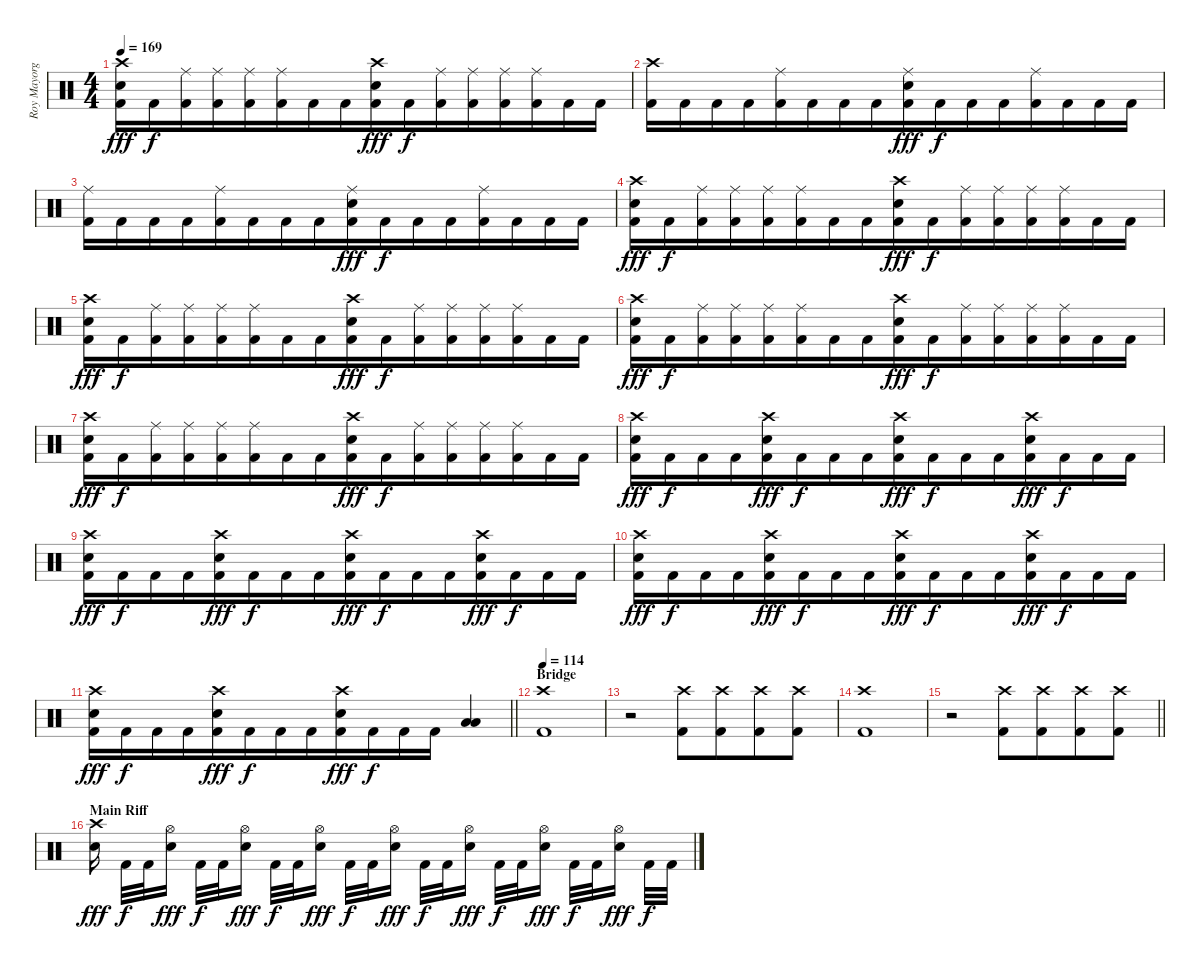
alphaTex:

\track ("Roy Mayorga" "Roy Mayorg") {instrument percussion}
\staff {score}
\articulation defaults
\ts (4 4)
\tempo 169
\clef neutral
\ks c
("Crash high (hit)" "Electric Snare (hit)" "Kick (hit) 2").16{dy fff} "Kick (hit) 2".16{dy f} ("Ride (middle)" "Kick (hit) 2").16 ("Ride (middle)" "Kick (hit) 2").16{beam merge} ("Ride (middle)" "Kick (hit) 2").16 ("Ride (middle)" "Kick (hit) 2").16 "Kick (hit) 2".16 "Kick (hit) 2".16{beam merge} ("Crash high (hit)" "Electric Snare (hit)" "Kick (hit) 2").16{dy fff} "Kick (hit) 2".16{dy f} ("Ride (middle)" "Kick (hit) 2").16 ("Ride (middle)" "Kick (hit) 2").16{beam merge} ("Ride (middle)" "Kick (hit) 2").16 ("Ride (middle)" "Kick (hit) 2").16 "Kick (hit) 2".16 "Kick (hit) 2".16 |
("Crash high (hit)" "Kick (hit) 2").16 "Kick (hit) 2".16 "Kick (hit) 2".16 "Kick (hit) 2".16{beam merge} ("Ride (middle)" "Kick (hit) 2").16 "Kick (hit) 2".16 "Kick (hit) 2".16 "Kick (hit) 2".16{beam merge} ("Ride (middle)" "Electric Snare (hit)" "Kick (hit) 2").16{dy fff} "Kick (hit) 2".16{dy f} "Kick (hit) 2".16 "Kick (hit) 2".16{beam merge} ("Ride (middle)" "Kick (hit) 2").16 "Kick (hit) 2".16 "Kick (hit) 2".16 "Kick (hit) 2".16 |
("Ride (middle)" "Kick (hit) 2").16 "Kick (hit) 2".16 "Kick (hit) 2".16 "Kick (hit) 2".16{beam merge} ("Ride (middle)" "Kick (hit) 2").16 "Kick (hit) 2".16 "Kick (hit) 2".16 "Kick (hit) 2".16{beam merge} ("Ride (middle)" "Electric Snare (hit)" "Kick (hit) 2").16{dy fff} "Kick (hit) 2".16{dy f} "Kick (hit) 2".16 "Kick (hit) 2".16{beam merge} ("Ride (middle)" "Kick (hit) 2").16 "Kick (hit) 2".16 "Kick (hit) 2".16 "Kick (hit) 2".16 |
("Crash high (hit)" "Electric Snare (hit)" "Kick (hit) 2").16{dy fff} "Kick (hit) 2".16{dy f} ("Ride (middle)" "Kick (hit) 2").16 ("Ride (middle)" "Kick (hit) 2").16{beam merge} ("Ride (middle)" "Kick (hit) 2").16 ("Ride (middle)" "Kick (hit) 2").16 "Kick (hit) 2".16 "Kick (hit) 2".16{beam merge} ("Crash high (hit)" "Electric Snare (hit)" "Kick (hit) 2").16{dy fff} "Kick (hit) 2".16{dy f} ("Ride (middle)" "Kick (hit) 2").16 ("Ride (middle)" "Kick (hit) 2").16{beam merge} ("Ride (middle)" "Kick (hit) 2").16 ("Ride (middle)" "Kick (hit) 2").16 "Kick (hit) 2".16 "Kick (hit) 2".16 |
("Crash high (hit)" "Electric Snare (hit)" "Kick (hit) 2").16{dy fff} "Kick (hit) 2".16{dy f} ("Ride (middle)" "Kick (hit) 2").16 ("Ride (middle)" "Kick (hit) 2").16{beam merge} ("Ride (middle)" "Kick (hit) 2").16 ("Ride (middle)" "Kick (hit) 2").16 "Kick (hit) 2".16 "Kick (hit) 2".16{beam merge} ("Crash high (hit)" "Electric Snare (hit)" "Kick (hit) 2").16{dy fff} "Kick (hit) 2".16{dy f} ("Ride (middle)" "Kick (hit) 2").16 ("Ride (middle)" "Kick (hit) 2").16{beam merge} ("Ride (middle)" "Kick (hit) 2").16 ("Ride (middle)" "Kick (hit) 2").16 "Kick (hit) 2".16 "Kick (hit) 2".16 |
("Crash high (hit)" "Electric Snare (hit)" "Kick (hit) 2").16{dy fff} "Kick (hit) 2".16{dy f} ("Ride (middle)" "Kick (hit) 2").16 ("Ride (middle)" "Kick (hit) 2").16{beam merge} ("Ride (middle)" "Kick (hit) 2").16 ("Ride (middle)" "Kick (hit) 2").16 "Kick (hit) 2".16 "Kick (hit) 2".16{beam merge} ("Crash high (hit)" "Electric Snare (hit)" "Kick (hit) 2").16{dy fff} "Kick (hit) 2".16{dy f} ("Ride (middle)" "Kick (hit) 2").16 ("Ride (middle)" "Kick (hit) 2").16{beam merge} ("Ride (middle)" "Kick (hit) 2").16 ("Ride (middle)" "Kick (hit) 2").16 "Kick (hit) 2".16 "Kick (hit) 2".16 |
("Crash high (hit)" "Electric Snare (hit)" "Kick (hit) 2").16{dy fff} "Kick (hit) 2".16{dy f} ("Ride (middle)" "Kick (hit) 2").16 ("Ride (middle)" "Kick (hit) 2").16{beam merge} ("Ride (middle)" "Kick (hit) 2").16 ("Ride (middle)" "Kick (hit) 2").16 "Kick (hit) 2".16 "Kick (hit) 2".16{beam merge} ("Crash high (hit)" "Electric Snare (hit)" "Kick (hit) 2").16{dy fff} "Kick (hit) 2".16{dy f} ("Ride (middle)" "Kick (hit) 2").16 ("Ride (middle)" "Kick (hit) 2").16{beam merge} ("Ride (middle)" "Kick (hit) 2").16 ("Ride (middle)" "Kick (hit) 2").16 "Kick (hit) 2".16 "Kick (hit) 2".16 |
("Crash high (hit)" "Electric Snare (hit)" "Kick (hit) 2").16{dy fff} "Kick (hit) 2".16{dy f} "Kick (hit) 2".16 "Kick (hit) 2".16{beam merge} ("Crash high (hit)" "Electric Snare (hit)" "Kick (hit) 2").16{dy fff} "Kick (hit) 2".16{dy f} "Kick (hit) 2".16 "Kick (hit) 2".16{beam merge} ("Crash high (hit)" "Electric Snare (hit)" "Kick (hit) 2").16{dy fff} "Kick (hit) 2".16{dy f} "Kick (hit) 2".16 "Kick (hit) 2".16{beam merge} ("Crash high (hit)" "Electric Snare (hit)" "Kick (hit) 2").16{dy fff} "Kick (hit) 2".16{dy f} "Kick (hit) 2".16 "Kick (hit) 2".16 |
("Crash high (hit)" "Electric Snare (hit)" "Kick (hit) 2").16{dy fff} "Kick (hit) 2".16{dy f} "Kick (hit) 2".16 "Kick (hit) 2".16{beam merge} ("Crash high (hit)" "Electric Snare (hit)" "Kick (hit) 2").16{dy fff} "Kick (hit) 2".16{dy f} "Kick (hit) 2".16 "Kick (hit) 2".16{beam merge} ("Crash high (hit)" "Electric Snare (hit)" "Kick (hit) 2").16{dy fff} "Kick (hit) 2".16{dy f} "Kick (hit) 2".16 "Kick (hit) 2".16{beam merge} ("Crash high (hit)" "Electric Snare (hit)" "Kick (hit) 2").16{dy fff} "Kick (hit) 2".16{dy f} "Kick (hit) 2".16 "Kick (hit) 2".16 |
("Crash high (hit)" "Electric Snare (hit)" "Kick (hit) 2").16{dy fff} "Kick (hit) 2".16{dy f} "Kick (hit) 2".16 "Kick (hit) 2".16{beam merge} ("Crash high (hit)" "Electric Snare (hit)" "Kick (hit) 2").16{dy fff} "Kick (hit) 2".16{dy f} "Kick (hit) 2".16 "Kick (hit) 2".16{beam merge} ("Crash high (hit)" "Electric Snare (hit)" "Kick (hit) 2").16{dy fff} "Kick (hit) 2".16{dy f} "Kick (hit) 2".16 "Kick (hit) 2".16{beam merge} ("Crash high (hit)" "Electric Snare (hit)" "Kick (hit) 2").16{dy fff} "Kick (hit) 2".16{dy f} "Kick (hit) 2".16 "Kick (hit) 2".16 |
\barLineRight lightlight
("Crash high (hit)" "Electric Snare (hit)" "Kick (hit) 2").16{dy fff} "Kick (hit) 2".16{dy f} "Kick (hit) 2".16 "Kick (hit) 2".16{beam merge} ("Crash high (hit)" "Electric Snare (hit)" "Kick (hit) 2").16{dy fff} "Kick (hit) 2".16{dy f} "Kick (hit) 2".16 "Kick (hit) 2".16{beam merge} ("Crash high (hit)" "Electric Snare (hit)" "Kick (hit) 2").16{dy fff} "Kick (hit) 2".16{dy f} "Kick (hit) 2".16 "Kick (hit) 2".16 ("Low Tom (hit)" "Low Floor Tom (hit)").4 |
\section ("" "Bridge")
\tempo 114
("Crash high (hit)" "Kick (hit) 2").1 |
r.2 ("Crash high (hit)" "Kick (hit) 2").8 ("Crash high (hit)" "Kick (hit) 2").8{beam merge} ("Crash high (hit)" "Kick (hit) 2").8 ("Crash high (hit)" "Kick (hit) 2").8 |
("Crash high (hit)" "Kick (hit) 2").1 |
\barLineRight lightlight
r.2 ("Crash high (hit)" "Kick (hit) 2").8 ("Crash high (hit)" "Kick (hit) 2").8{beam merge} ("Crash high (hit)" "Kick (hit) 2").8 ("Crash high (hit)" "Kick (hit) 2").8 |
\section ("" "Main Riff")
("Crash high (hit)" "Electric Snare (hit)").16{dy fff beam split} "Kick (hit) 2".32{dy f} "Kick (hit) 2".32 ("Hi-Hat (open)" "Electric Snare (hit)").16{dy fff beam split} "Kick (hit) 2".32{dy f} "Kick (hit) 2".32{beam merge} ("Hi-Hat (open)" "Electric Snare (hit)").16{dy fff beam split} "Kick (hit) 2".32{dy f} "Kick (hit) 2".32 ("Hi-Hat (open)" "Electric Snare (hit)").16{dy fff beam split} "Kick (hit) 2".32{dy f} "Kick (hit) 2".32{beam merge} ("Hi-Hat (open)" "Electric Snare (hit)").16{dy fff beam split} "Kick (hit) 2".32{dy f} "Kick (hit) 2".32 ("Hi-Hat (open)" "Electric Snare (hit)").16{dy fff beam split} "Kick (hit) 2".32{dy f} "Kick (hit) 2".32{beam merge} ("Hi-Hat (open)" "Electric Snare (hit)").16{dy fff beam split} "Kick (hit) 2".32{dy f} "Kick (hit) 2".32 ("Hi-Hat (open)" "Electric Snare (hit)").16{dy fff beam split} "Kick (hit) 2".32{dy f beam Down} "Kick (hit) 2".32{beam Down}
